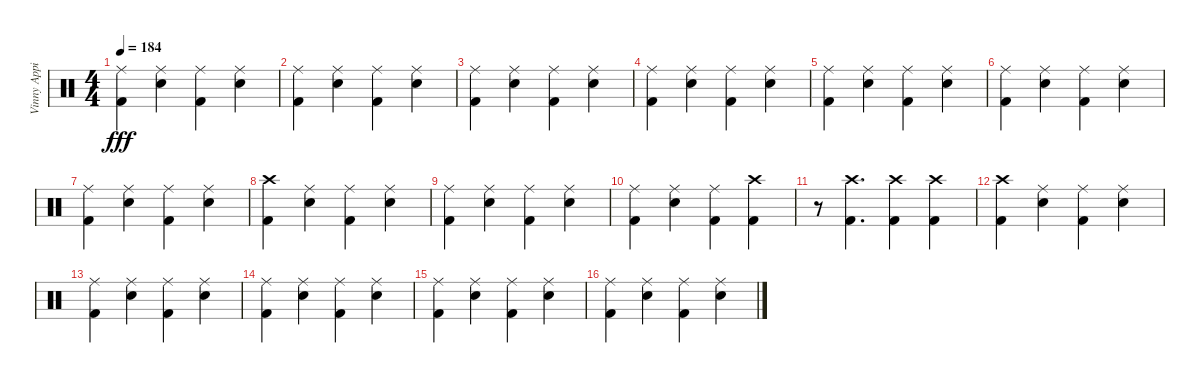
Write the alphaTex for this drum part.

\track ("Vinny Appice" "Vinny Appi") {instrument percussion}
\staff {score}
\articulation defaults
\ts (4 4)
\tempo 184
\clef neutral
\ks c
("Ride (middle)" "Kick (hit) 2").4{dy fff} ("Ride (middle)" "Snare (hit) 2").4 ("Ride (middle)" "Kick (hit) 2").4 ("Ride (middle)" "Snare (hit) 2").4 |
("Ride (middle)" "Kick (hit) 2").4 ("Ride (middle)" "Snare (hit) 2").4 ("Ride (middle)" "Kick (hit) 2").4 ("Ride (middle)" "Snare (hit) 2").4 |
("Ride (middle)" "Kick (hit) 2").4 ("Ride (middle)" "Snare (hit) 2").4 ("Ride (middle)" "Kick (hit) 2").4 ("Ride (middle)" "Snare (hit) 2").4 |
("Ride (middle)" "Kick (hit) 2").4 ("Ride (middle)" "Snare (hit) 2").4 ("Ride (middle)" "Kick (hit) 2").4 ("Ride (middle)" "Snare (hit) 2").4 |
("Ride (middle)" "Kick (hit) 2").4 ("Ride (middle)" "Snare (hit) 2").4 ("Ride (middle)" "Kick (hit) 2").4 ("Ride (middle)" "Snare (hit) 2").4 |
("Ride (middle)" "Kick (hit) 2").4 ("Ride (middle)" "Snare (hit) 2").4 ("Ride (middle)" "Kick (hit) 2").4 ("Ride (middle)" "Snare (hit) 2").4 |
("Ride (middle)" "Kick (hit) 2").4 ("Ride (middle)" "Snare (hit) 2").4 ("Ride (middle)" "Kick (hit) 2").4 ("Ride (middle)" "Snare (hit) 2").4 |
("Crash high (hit)" "Kick (hit) 2").4 ("Ride (middle)" "Snare (hit) 2").4 ("Ride (middle)" "Kick (hit) 2").4 ("Ride (middle)" "Snare (hit) 2").4 |
("Ride (middle)" "Kick (hit) 2").4 ("Ride (middle)" "Snare (hit) 2").4 ("Ride (middle)" "Kick (hit) 2").4 ("Ride (middle)" "Snare (hit) 2").4 |
("Ride (middle)" "Kick (hit) 2").4 ("Ride (middle)" "Snare (hit) 2").4 ("Ride (middle)" "Kick (hit) 2").4 ("Crash high (hit)" "Kick (hit) 2").4 |
r.8 ("Crash high (hit)" "Kick (hit) 2").4{d} ("Crash high (hit)" "Kick (hit) 2").4 ("Crash high (hit)" "Kick (hit) 2").4 |
("Crash high (hit)" "Kick (hit) 2").4 ("Ride (middle)" "Snare (hit) 2").4 ("Ride (middle)" "Kick (hit) 2").4 ("Ride (middle)" "Snare (hit) 2").4 |
("Ride (middle)" "Kick (hit) 2").4 ("Ride (middle)" "Snare (hit) 2").4 ("Ride (middle)" "Kick (hit) 2").4 ("Ride (middle)" "Snare (hit) 2").4 |
("Ride (middle)" "Kick (hit) 2").4 ("Ride (middle)" "Snare (hit) 2").4 ("Ride (middle)" "Kick (hit) 2").4 ("Ride (middle)" "Snare (hit) 2").4 |
("Ride (middle)" "Kick (hit) 2").4 ("Ride (middle)" "Snare (hit) 2").4 ("Ride (middle)" "Kick (hit) 2").4 ("Ride (middle)" "Snare (hit) 2").4 |
("Ride (middle)" "Kick (hit) 2").4 ("Ride (middle)" "Snare (hit) 2").4 ("Ride (middle)" "Kick (hit) 2").4 ("Ride (middle)" "Snare (hit) 2").4
